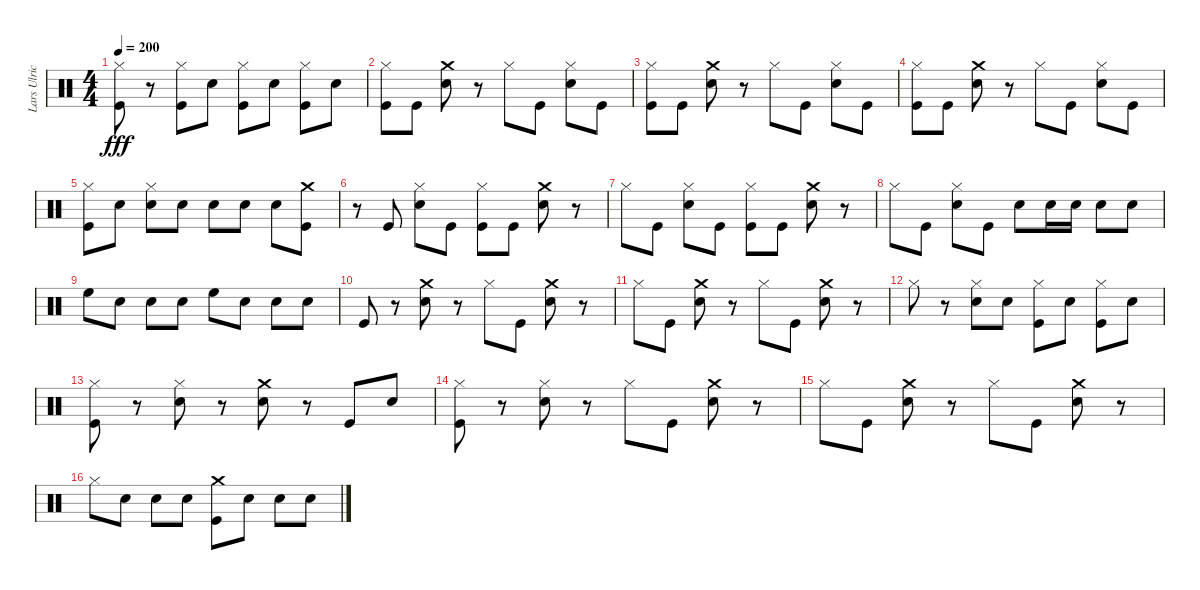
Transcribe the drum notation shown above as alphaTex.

\track ("Lars Ulrich" "Lars Ulric") {instrument percussion}
\staff {score}
\articulation defaults
\ts (4 4)
\tempo 200
\clef neutral
\ks c
("Kick (hit)" "Hi-Hat (closed)").8{dy fff} r.8 ("Kick (hit)" "Hi-Hat (closed)").8 "Snare (hit) 2".8 ("Kick (hit)" "Hi-Hat (closed)").8 "Snare (hit) 2".8 ("Kick (hit)" "Hi-Hat (closed)").8 "Snare (hit) 2".8 |
("Kick (hit)" "Hi-Hat (closed)").8 "Kick (hit)".8 ("Crash medium (hit)" "Snare (hit) 2").8 r.8 "Hi-Hat (closed)".8 "Kick (hit)".8 ("Snare (hit) 2" "Hi-Hat (closed)").8 "Kick (hit)".8 |
("Kick (hit)" "Hi-Hat (closed)").8 "Kick (hit)".8 ("Crash medium (hit)" "Snare (hit) 2").8 r.8 "Hi-Hat (closed)".8 "Kick (hit)".8 ("Snare (hit) 2" "Hi-Hat (closed)").8 "Kick (hit)".8 |
("Kick (hit)" "Hi-Hat (closed)").8 "Kick (hit)".8 ("Crash medium (hit)" "Snare (hit) 2").8 r.8 "Hi-Hat (closed)".8 "Kick (hit)".8 ("Snare (hit) 2" "Hi-Hat (closed)").8 "Kick (hit)".8 |
("Hi-Hat (closed)" "Kick (hit)").8 "Snare (hit) 2".8 ("Hi-Hat (closed)" "Snare (hit) 2").8 "Snare (hit) 2".8 "Snare (hit) 2".8 "Snare (hit) 2".8 "Snare (hit) 2".8 ("Crash medium (hit)" "Kick (hit)").8 |
r.8 "Kick (hit)".8 ("Hi-Hat (closed)" "Snare (hit) 2").8 "Kick (hit)".8 ("Hi-Hat (closed)" "Kick (hit)").8 "Kick (hit)".8 ("Crash medium (hit)" "Snare (hit) 2").8 r.8 |
"Hi-Hat (closed)".8 "Kick (hit)".8 ("Hi-Hat (closed)" "Snare (hit) 2").8 "Kick (hit)".8 ("Hi-Hat (closed)" "Kick (hit)").8 "Kick (hit)".8 ("Crash medium (hit)" "Snare (hit) 2").8 r.8 |
"Hi-Hat (closed)".8 "Kick (hit)".8 ("Hi-Hat (closed)" "Snare (hit) 2").8 "Kick (hit)".8 "Snare (hit) 2".8 "Snare (hit) 2".16 "Snare (hit) 2".16 "Snare (hit) 2".8 "Snare (hit) 2".8 |
"High Floor Tom (hit)".8 "Snare (hit) 2".8 "Snare (hit) 2".8 "Snare (hit) 2".8 "High Floor Tom (hit)".8 "Snare (hit) 2".8 "Snare (hit) 2".8 "Snare (hit) 2".8 |
"Kick (hit)".8 r.8 ("Crash medium (hit)" "Snare (hit) 2").8 r.8 "Hi-Hat (closed)".8 "Kick (hit)".8 ("Crash medium (hit)" "Snare (hit) 2").8 r.8 |
"Hi-Hat (closed)".8 "Kick (hit)".8 ("Crash medium (hit)" "Snare (hit) 2").8 r.8 "Hi-Hat (closed)".8 "Kick (hit)".8 ("Crash medium (hit)" "Snare (hit) 2").8 r.8 |
"Hi-Hat (closed)".8 r.8 ("Snare (hit) 2" "Hi-Hat (closed)").8 "Snare (hit) 2".8 ("Hi-Hat (closed)" "Kick (hit)").8 "Snare (hit) 2".8 ("Hi-Hat (closed)" "Kick (hit)").8 "Snare (hit) 2".8 |
("Hi-Hat (closed)" "Kick (hit)").8 r.8 ("Hi-Hat (closed)" "Snare (hit) 2").8 r.8 ("Crash medium (hit)" "Snare (hit) 2").8 r.8 "Kick (hit)".8 "Snare (hit) 2".8 |
("Hi-Hat (closed)" "Kick (hit)").8 r.8 ("Hi-Hat (closed)" "Snare (hit) 2").8 r.8 "Hi-Hat (closed)".8 "Kick (hit)".8 ("Crash medium (hit)" "Snare (hit) 2").8 r.8 |
"Hi-Hat (closed)".8 "Kick (hit)".8 ("Crash medium (hit)" "Snare (hit) 2").8 r.8 "Hi-Hat (closed)".8 "Kick (hit)".8 ("Crash medium (hit)" "Snare (hit) 2").8 r.8 |
"Hi-Hat (closed)".8 "Snare (hit) 2".8 "Snare (hit) 2".8 "Snare (hit) 2".8 ("Crash medium (hit)" "Kick (hit)").8 "Snare (hit) 2".8 "Snare (hit) 2".8 "Snare (hit) 2".8
